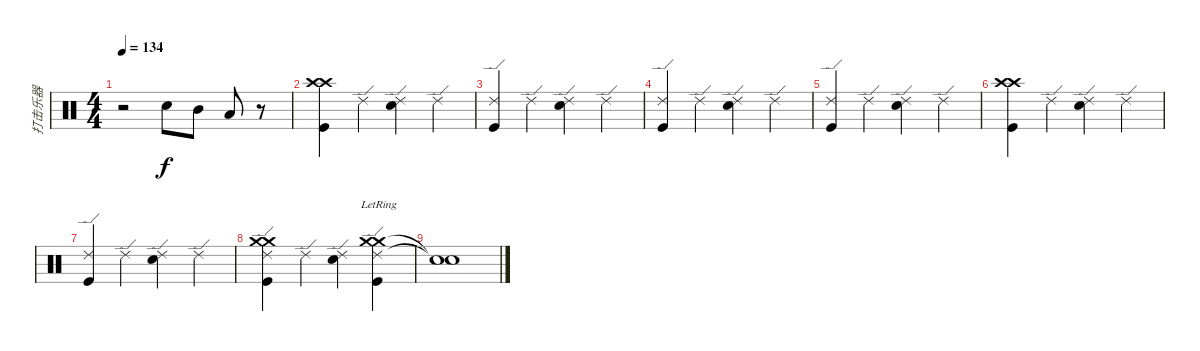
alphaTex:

\track ("打击乐器" "打击乐器") {instrument percussion}
\staff {score}
\articulation defaults
\ts (4 4)
\tempo 134
\clef neutral
\ks c
r.2{dy f} "Electric Snare (hit)".8 "Mid Tom (hit)".8 "Low Tom (hit)".8 r.8 |
("Crash high (hit)" "Crash high (hit)" "Kick (hit)").4 "Ride (edge) 2".4 ("Ride (edge) 2" "Electric Snare (hit)").4 "Ride (edge) 2".4 |
("Ride (edge) 2" "Kick (hit)").4 "Ride (edge) 2".4 ("Ride (edge) 2" "Electric Snare (hit)").4 "Ride (edge) 2".4 |
("Ride (edge) 2" "Kick (hit)").4 "Ride (edge) 2".4 ("Ride (edge) 2" "Electric Snare (hit)").4 "Ride (edge) 2".4 |
("Ride (edge) 2" "Kick (hit)").4 "Ride (edge) 2".4 ("Ride (edge) 2" "Electric Snare (hit)").4 "Ride (edge) 2".4 |
("Crash high (hit)" "Crash high (hit)" "Kick (hit)").4 "Ride (edge) 2".4 ("Ride (edge) 2" "Electric Snare (hit)").4 "Ride (edge) 2".4 |
("Ride (edge) 2" "Kick (hit)").4 "Ride (edge) 2".4 ("Ride (edge) 2" "Electric Snare (hit)").4 "Ride (edge) 2".4 |
("Ride (edge) 2" "Crash medium (hit)" "Crash medium (hit)" "Kick (hit)").4 "Ride (edge) 2".4 ("Ride (edge) 2" "Electric Snare (hit)").4 ("Ride (edge) 2" "Crash medium (hit)"{lr} "Crash medium (hit)"{lr} "Kick (hit)").4 |
("Snare (hit)"{t} "Snare (hit)"{t}).1
